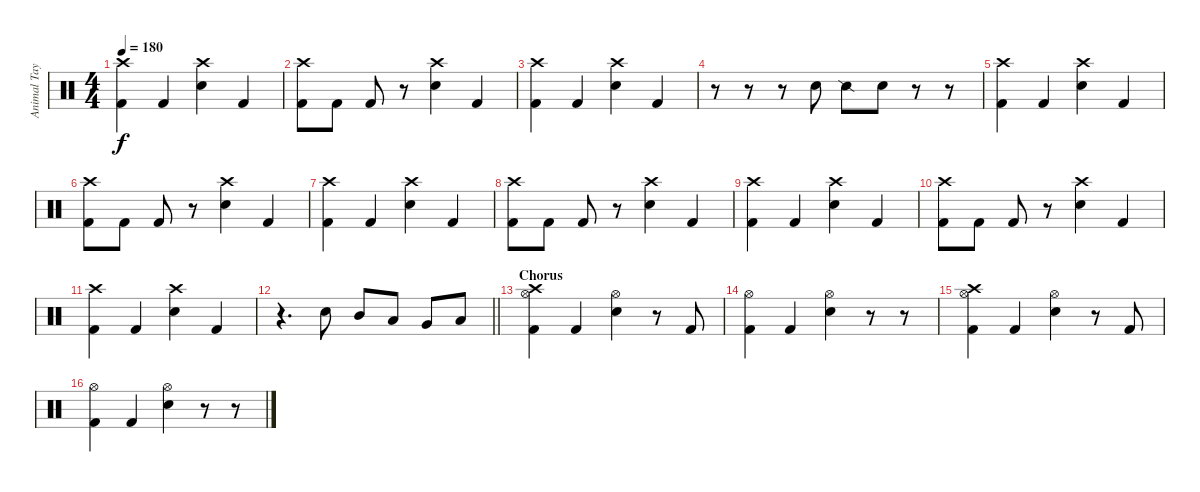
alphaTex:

\track ("Animal Taylor" "Animal Tay") {instrument percussion}
\staff {score}
\articulation defaults
\ts (4 4)
\tempo 180
\clef neutral
\ks c
("Crash high (hit)" "Kick (hit) 2").4{dy f} "Kick (hit) 2".4 ("Crash high (hit)" "Snare (hit) 2").4 "Kick (hit) 2".4 |
("Crash high (hit)" "Kick (hit) 2").8 "Kick (hit) 2".8 "Kick (hit) 2".8 r.8 ("Crash high (hit)" "Snare (hit) 2").4 "Kick (hit) 2".4 |
("Crash high (hit)" "Kick (hit) 2").4 "Kick (hit) 2".4 ("Crash high (hit)" "Snare (hit) 2").4 "Kick (hit) 2".4 |
r.8 r.8 r.8 "Snare (hit) 2".8 "Snare (side stick) 2".8 "Snare (hit) 2".8 r.8 r.8 |
("Crash high (hit)" "Kick (hit) 2").4 "Kick (hit) 2".4 ("Crash high (hit)" "Snare (hit) 2").4 "Kick (hit) 2".4 |
("Crash high (hit)" "Kick (hit) 2").8 "Kick (hit) 2".8 "Kick (hit) 2".8 r.8 ("Crash high (hit)" "Snare (hit) 2").4 "Kick (hit) 2".4 |
("Crash high (hit)" "Kick (hit) 2").4 "Kick (hit) 2".4 ("Crash high (hit)" "Snare (hit) 2").4 "Kick (hit) 2".4 |
("Crash high (hit)" "Kick (hit) 2").8 "Kick (hit) 2".8 "Kick (hit) 2".8 r.8 ("Crash high (hit)" "Snare (hit) 2").4 "Kick (hit) 2".4 |
("Crash high (hit)" "Kick (hit) 2").4 "Kick (hit) 2".4 ("Crash high (hit)" "Snare (hit) 2").4 "Kick (hit) 2".4 |
("Crash high (hit)" "Kick (hit) 2").8 "Kick (hit) 2".8 "Kick (hit) 2".8 r.8 ("Crash high (hit)" "Snare (hit) 2").4 "Kick (hit) 2".4 |
("Crash high (hit)" "Kick (hit) 2").4 "Kick (hit) 2".4 ("Crash high (hit)" "Snare (hit) 2").4 "Kick (hit) 2".4 |
\barLineRight lightlight
r.4{d} "Snare (hit) 2".8 "Mid Tom (hit)".8 "Low Tom (hit)".8 "Very Low Tom (hit)".8 "Low Floor Tom (hit)".8 |
\section ("" "Chorus")
("Hi-Hat (open)" "Crash high (hit)" "Kick (hit) 2").4 "Kick (hit) 2".4 ("Hi-Hat (open)" "Snare (hit) 2").4 r.8 "Kick (hit) 2".8 |
("Hi-Hat (open)" "Kick (hit) 2").4 "Kick (hit) 2".4 ("Hi-Hat (open)" "Snare (hit) 2").4 r.8 r.8 |
("Hi-Hat (open)" "Crash high (hit)" "Kick (hit) 2").4 "Kick (hit) 2".4 ("Hi-Hat (open)" "Snare (hit) 2").4 r.8 "Kick (hit) 2".8 |
("Hi-Hat (open)" "Kick (hit) 2").4 "Kick (hit) 2".4 ("Hi-Hat (open)" "Snare (hit) 2").4 r.8 r.8
